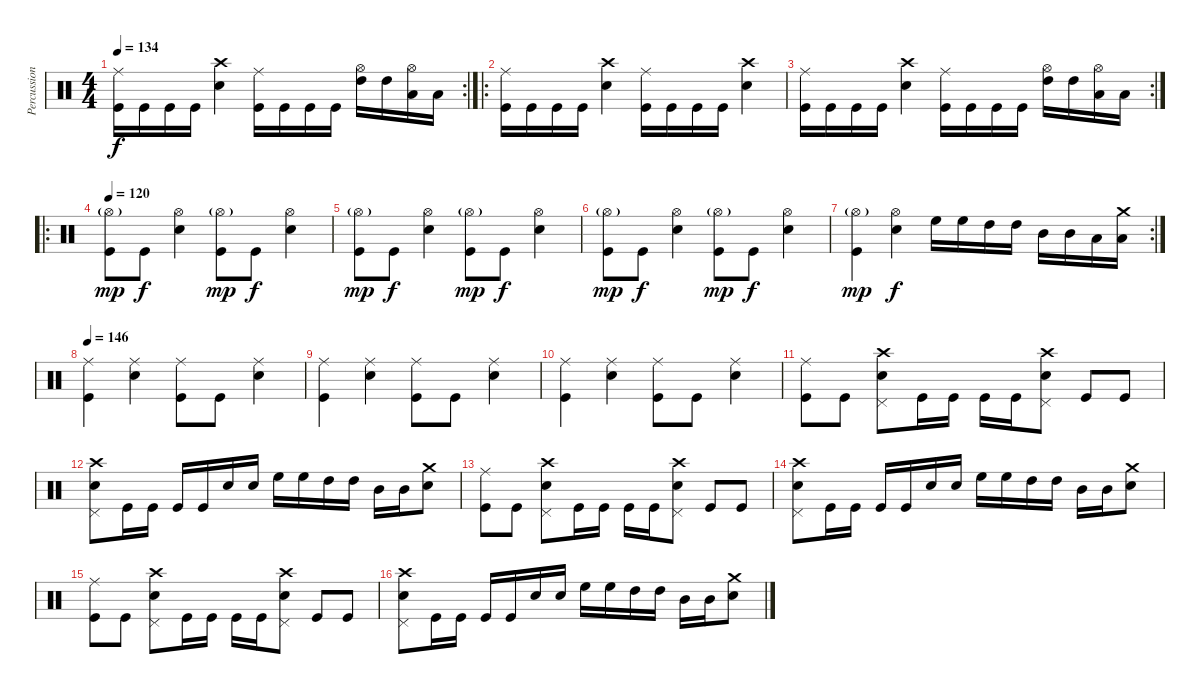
\track ("Percussion" "Percussion") {instrument percussion}
\staff {score}
\articulation defaults
\rc 2
\ts (4 4)
\tempo 134
\clef neutral
\ks c
("Ride (middle)" "Kick (hit)").16{dy f} "Kick (hit)".16 "Kick (hit)".16 "Kick (hit)".16 ("Crash high (hit)" "Snare (hit) 2").4 ("Ride (middle)" "Kick (hit)").16 "Kick (hit)".16 "Kick (hit)".16 "Kick (hit)".16 ("Hi-Hat (open)" "High Tom (hit)").16 "High Tom (hit)".16 ("Hi-Hat (open)" "Low Tom (hit)").16 "Low Tom (hit)".16 |
\ro
("Ride (middle)" "Kick (hit)").16 "Kick (hit)".16 "Kick (hit)".16 "Kick (hit)".16 ("Crash high (hit)" "Snare (hit) 2").4 ("Ride (middle)" "Kick (hit)").16 "Kick (hit)".16 "Kick (hit)".16 "Kick (hit)".16 ("Crash high (hit)" "Snare (hit) 2").4 |
\rc 2
("Ride (middle)" "Kick (hit)").16 "Kick (hit)".16 "Kick (hit)".16 "Kick (hit)".16 ("Crash high (hit)" "Snare (hit) 2").4 ("Ride (middle)" "Kick (hit)").16 "Kick (hit)".16 "Kick (hit)".16 "Kick (hit)".16 ("Hi-Hat (open)" "High Tom (hit)").16 "High Tom (hit)".16 ("Hi-Hat (open)" "Low Tom (hit)").16 "Low Tom (hit)".16 |
\ro
\tempo 120
("Hi-Hat (open)"{g} "Kick (hit)").8{dy mp} "Kick (hit)".8{dy f} ("Hi-Hat (open)" "Snare (hit) 2").4 ("Hi-Hat (open)"{g} "Kick (hit)").8{dy mp} "Kick (hit)".8{dy f} ("Hi-Hat (open)" "Snare (hit) 2").4 |
("Hi-Hat (open)"{g} "Kick (hit)").8{dy mp} "Kick (hit)".8{dy f} ("Hi-Hat (open)" "Snare (hit) 2").4 ("Hi-Hat (open)"{g} "Kick (hit)").8{dy mp} "Kick (hit)".8{dy f} ("Hi-Hat (open)" "Snare (hit) 2").4 |
("Hi-Hat (open)"{g} "Kick (hit)").8{dy mp} "Kick (hit)".8{dy f} ("Hi-Hat (open)" "Snare (hit) 2").4 ("Hi-Hat (open)"{g} "Kick (hit)").8{dy mp} "Kick (hit)".8{dy f} ("Hi-Hat (open)" "Snare (hit) 2").4 |
\rc 2
("Hi-Hat (open)"{g} "Kick (hit)").4{dy mp} ("Hi-Hat (open)" "Snare (hit) 2").4{dy f} "High Floor Tom (hit)".16 "High Floor Tom (hit)".16 "High Tom (hit)".16 "High Tom (hit)".16 "Mid Tom (hit)".16 "Mid Tom (hit)".16 "Low Tom (hit)".16 ("Crash medium (hit)" "Low Tom (hit)").16 |
\tempo 146
("Ride (middle)" "Kick (hit)").4 ("Ride (middle)" "Snare (hit) 2").4 ("Ride (middle)" "Kick (hit)").8 "Kick (hit)".8 ("Ride (middle)" "Snare (hit) 2").4 |
("Ride (middle)" "Kick (hit)").4 ("Ride (middle)" "Snare (hit) 2").4 ("Ride (middle)" "Kick (hit)").8 "Kick (hit)".8 ("Ride (middle)" "Snare (hit) 2").4 |
("Ride (middle)" "Kick (hit)").4 ("Ride (middle)" "Snare (hit) 2").4 ("Ride (middle)" "Kick (hit)").8 "Kick (hit)".8 ("Ride (middle)" "Snare (hit) 2").4 |
("Ride (middle)" "Kick (hit)").8 "Kick (hit)".8 ("Crash high (hit)" "Pedal Hi-Hat (hit)" "Snare (hit) 2").8 "Kick (hit)".16 "Kick (hit)".16 "Kick (hit)".16 "Kick (hit)".16 ("Crash high (hit)" "Pedal Hi-Hat (hit)" "Snare (hit) 2").8 "Kick (hit)".8 "Kick (hit)".8 |
("Crash high (hit)" "Pedal Hi-Hat (hit)" "Snare (hit) 2").8 "Kick (hit)".16 "Kick (hit)".16 "Kick (hit)".16 "Kick (hit)".16 "Snare (hit) 2".16 "Snare (hit) 2".16 "High Floor Tom (hit)".16 "High Floor Tom (hit)".16 "High Tom (hit)".16 "High Tom (hit)".16 "Mid Tom (hit)".16 "Mid Tom (hit)".16 ("Crash medium (hit)" "Snare (hit) 2").8 |
("Ride (middle)" "Kick (hit)").8 "Kick (hit)".8 ("Crash high (hit)" "Pedal Hi-Hat (hit)" "Snare (hit) 2").8 "Kick (hit)".16 "Kick (hit)".16 "Kick (hit)".16 "Kick (hit)".16 ("Crash high (hit)" "Pedal Hi-Hat (hit)" "Snare (hit) 2").8 "Kick (hit)".8 "Kick (hit)".8 |
("Crash high (hit)" "Pedal Hi-Hat (hit)" "Snare (hit) 2").8 "Kick (hit)".16 "Kick (hit)".16 "Kick (hit)".16 "Kick (hit)".16 "Snare (hit) 2".16 "Snare (hit) 2".16 "High Floor Tom (hit)".16 "High Floor Tom (hit)".16 "High Tom (hit)".16 "High Tom (hit)".16 "Mid Tom (hit)".16 "Mid Tom (hit)".16 ("Crash medium (hit)" "Snare (hit) 2").8 |
("Ride (middle)" "Kick (hit)").8 "Kick (hit)".8 ("Crash high (hit)" "Pedal Hi-Hat (hit)" "Snare (hit) 2").8 "Kick (hit)".16 "Kick (hit)".16 "Kick (hit)".16 "Kick (hit)".16 ("Crash high (hit)" "Pedal Hi-Hat (hit)" "Snare (hit) 2").8 "Kick (hit)".8 "Kick (hit)".8 |
("Crash high (hit)" "Pedal Hi-Hat (hit)" "Snare (hit) 2").8 "Kick (hit)".16 "Kick (hit)".16 "Kick (hit)".16 "Kick (hit)".16 "Snare (hit) 2".16 "Snare (hit) 2".16 "High Floor Tom (hit)".16 "High Floor Tom (hit)".16 "High Tom (hit)".16 "High Tom (hit)".16 "Mid Tom (hit)".16 "Mid Tom (hit)".16 ("Crash medium (hit)" "Snare (hit) 2").8
